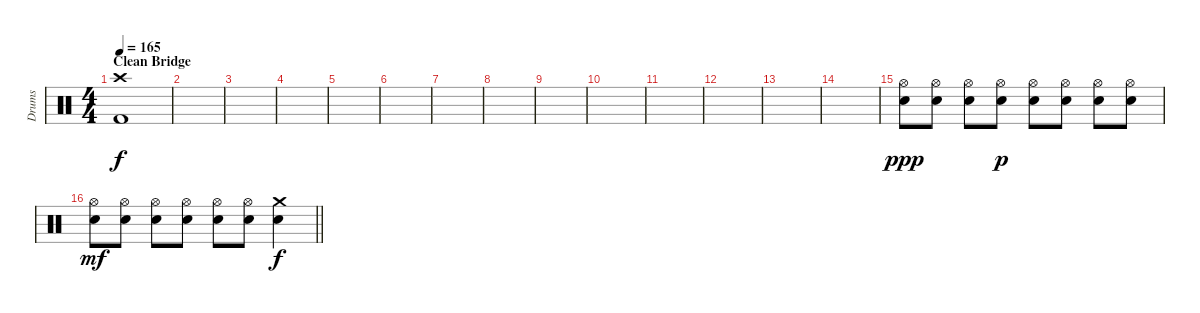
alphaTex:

\track ("Drums" "Drums") {instrument percussion}
\staff {score}
\articulation defaults
\ts (4 4)
\section ("" "Clean Bridge")
\tempo 165
\clef neutral
\ks c
("Crash high (hit)" "Kick (hit) 2").1{dy f} |
|
|
|
|
|
|
|
|
|
|
|
|
|
("Hi-Hat (open)" "Electric Snare (hit)").8{dy ppp} ("Hi-Hat (open)" "Electric Snare (hit)").8 ("Hi-Hat (open)" "Electric Snare (hit)").8 ("Hi-Hat (open)" "Electric Snare (hit)").8{dy p} ("Hi-Hat (open)" "Electric Snare (hit)").8 ("Hi-Hat (open)" "Electric Snare (hit)").8 ("Hi-Hat (open)" "Electric Snare (hit)").8 ("Hi-Hat (open)" "Electric Snare (hit)").8 |
\barLineRight lightlight
("Hi-Hat (open)" "Electric Snare (hit)").8{dy mf} ("Hi-Hat (open)" "Electric Snare (hit)").8 ("Hi-Hat (open)" "Electric Snare (hit)").8 ("Hi-Hat (open)" "Electric Snare (hit)").8 ("Hi-Hat (open)" "Electric Snare (hit)").8 ("Hi-Hat (open)" "Electric Snare (hit)").8 ("Crash medium (hit)" "Electric Snare (hit)").4{dy f}
